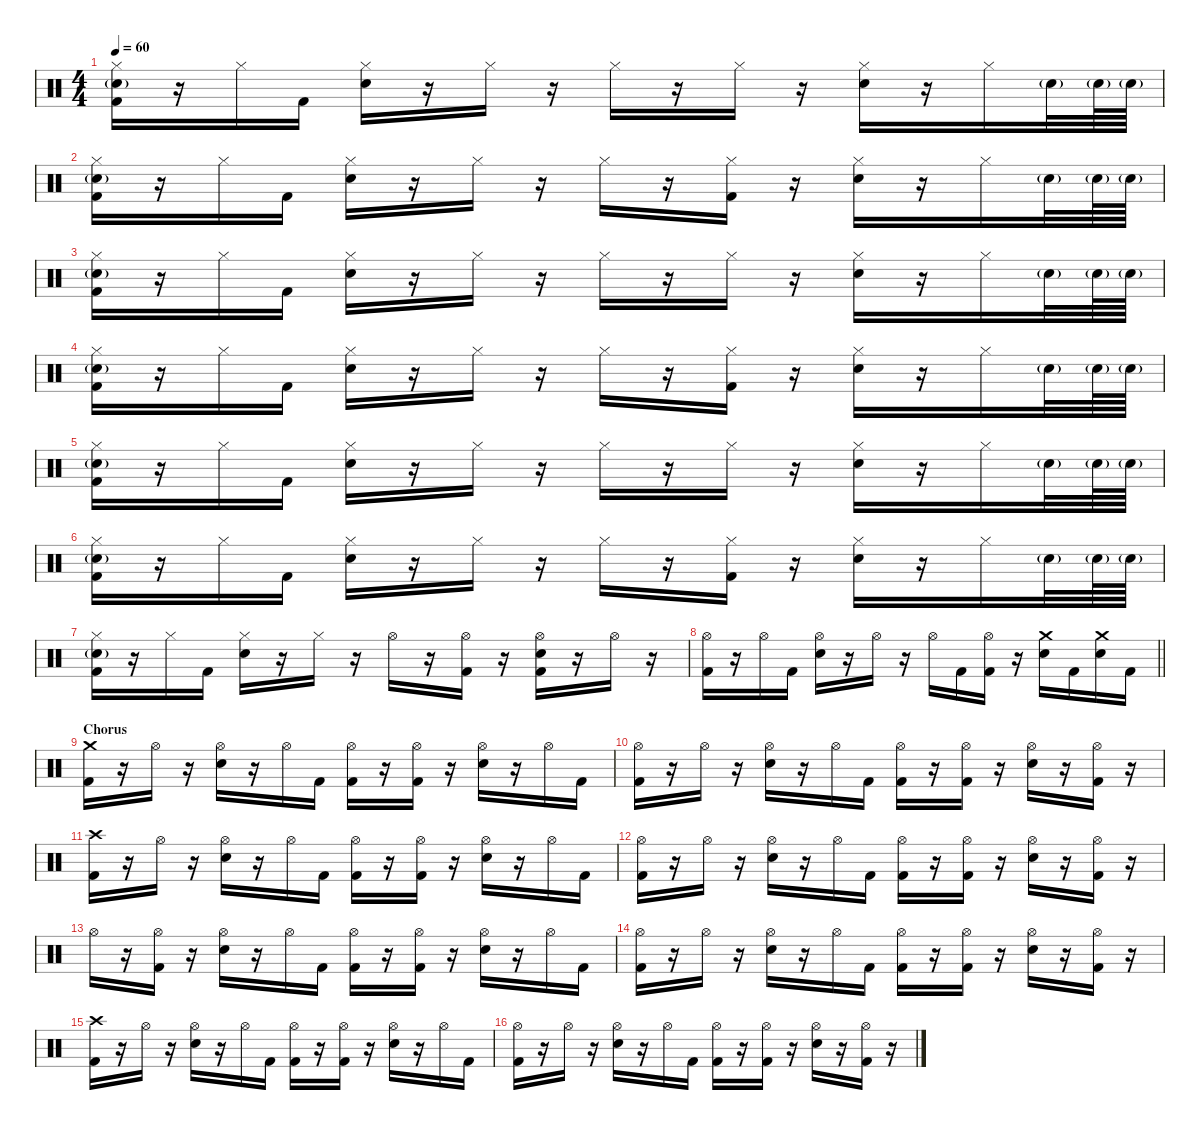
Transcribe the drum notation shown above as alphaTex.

\defaultSystemsLayout 4
\hideDynamics
\bracketExtendMode nobrackets
\singleTrackTrackNamePolicy hidden
\multiTrackTrackNamePolicy hidden
\firstSystemTrackNameMode fullname
\firstSystemTrackNameOrientation horizontal
\otherSystemsTrackNameOrientation horizontal
\track ("Gene Hoglan" "drm.") {instrument percussion}
\staff {score}
\articulation defaults
\ts (4 4)
\tempo 60
\clef neutral
\ks c
("Hi-Hat (closed)" "Snare (hit) 2"{g} "Kick (hit) 2").16{dy f beam Down} r.16{beam Down} "Hi-Hat (closed)".16{beam Down} "Kick (hit) 2".16{beam Down} ("Hi-Hat (closed)" "Snare (hit) 2").16{beam Down} r.16{beam Down} "Hi-Hat (closed)".16{beam Down} r.16{beam Down} "Hi-Hat (closed)".16{beam Down} r.16{beam Down} "Hi-Hat (closed)".16{beam Down} r.16{beam Down} ("Hi-Hat (closed)" "Snare (hit) 2").16{beam Down} r.16{beam Down} "Hi-Hat (closed)".16{beam Down} "Snare (hit) 2"{g}.32{beam Down} "Snare (hit) 2"{g}.64{beam Down} "Snare (hit) 2"{g}.64{beam Down} |
("Hi-Hat (closed)" "Snare (hit) 2"{g} "Kick (hit) 2").16{beam Down} r.16{beam Down} "Hi-Hat (closed)".16{beam Down} "Kick (hit) 2".16{beam Down} ("Hi-Hat (closed)" "Snare (hit) 2").16{beam Down} r.16{beam Down} "Hi-Hat (closed)".16{beam Down} r.16{beam Down} "Hi-Hat (closed)".16{beam Down} r.16{beam Down} ("Hi-Hat (closed)" "Kick (hit) 2").16{beam Down} r.16{beam Down} ("Hi-Hat (closed)" "Snare (hit) 2").16{beam Down} r.16{beam Down} "Hi-Hat (closed)".16{beam Down} "Snare (hit) 2"{g}.32{beam Down} "Snare (hit) 2"{g}.64{beam Down} "Snare (hit) 2"{g}.64{beam Down} |
("Hi-Hat (closed)" "Snare (hit) 2"{g} "Kick (hit) 2").16{beam Down} r.16{beam Down} "Hi-Hat (closed)".16{beam Down} "Kick (hit) 2".16{beam Down} ("Hi-Hat (closed)" "Snare (hit) 2").16{beam Down} r.16{beam Down} "Hi-Hat (closed)".16{beam Down} r.16{beam Down} "Hi-Hat (closed)".16{beam Down} r.16{beam Down} "Hi-Hat (closed)".16{beam Down} r.16{beam Down} ("Hi-Hat (closed)" "Snare (hit) 2").16{beam Down} r.16{beam Down} "Hi-Hat (closed)".16{beam Down} "Snare (hit) 2"{g}.32{beam Down} "Snare (hit) 2"{g}.64{beam Down} "Snare (hit) 2"{g}.64{beam Down} |
("Hi-Hat (closed)" "Snare (hit) 2"{g} "Kick (hit) 2").16{beam Down} r.16{beam Down} "Hi-Hat (closed)".16{beam Down} "Kick (hit) 2".16{beam Down} ("Hi-Hat (closed)" "Snare (hit) 2").16{beam Down} r.16{beam Down} "Hi-Hat (closed)".16{beam Down} r.16{beam Down} "Hi-Hat (closed)".16{beam Down} r.16{beam Down} ("Hi-Hat (closed)" "Kick (hit) 2").16{beam Down} r.16{beam Down} ("Hi-Hat (closed)" "Snare (hit) 2").16{beam Down} r.16{beam Down} "Hi-Hat (closed)".16{beam Down} "Snare (hit) 2"{g}.32{beam Down} "Snare (hit) 2"{g}.64{beam Down} "Snare (hit) 2"{g}.64{beam Down} |
("Hi-Hat (closed)" "Snare (hit) 2"{g} "Kick (hit) 2").16{beam Down} r.16{beam Down} "Hi-Hat (closed)".16{beam Down} "Kick (hit) 2".16{beam Down} ("Hi-Hat (closed)" "Snare (hit) 2").16{beam Down} r.16{beam Down} "Hi-Hat (closed)".16{beam Down} r.16{beam Down} "Hi-Hat (closed)".16{beam Down} r.16{beam Down} "Hi-Hat (closed)".16{beam Down} r.16{beam Down} ("Hi-Hat (closed)" "Snare (hit) 2").16{beam Down} r.16{beam Down} "Hi-Hat (closed)".16{beam Down} "Snare (hit) 2"{g}.32{beam Down} "Snare (hit) 2"{g}.64{beam Down} "Snare (hit) 2"{g}.64{beam Down} |
("Hi-Hat (closed)" "Snare (hit) 2"{g} "Kick (hit) 2").16{beam Down} r.16{beam Down} "Hi-Hat (closed)".16{beam Down} "Kick (hit) 2".16{beam Down} ("Hi-Hat (closed)" "Snare (hit) 2").16{beam Down} r.16{beam Down} "Hi-Hat (closed)".16{beam Down} r.16{beam Down} "Hi-Hat (closed)".16{beam Down} r.16{beam Down} ("Hi-Hat (closed)" "Kick (hit) 2").16{beam Down} r.16{beam Down} ("Hi-Hat (closed)" "Snare (hit) 2").16{beam Down} r.16{beam Down} "Hi-Hat (closed)".16{beam Down} "Snare (hit) 2"{g}.32{beam Down} "Snare (hit) 2"{g}.64{beam Down} "Snare (hit) 2"{g}.64{beam Down} |
("Hi-Hat (closed)" "Snare (hit) 2"{g} "Kick (hit) 2").16{beam Down} r.16{beam Down} "Hi-Hat (closed)".16{beam Down} "Kick (hit) 2".16{beam Down} ("Hi-Hat (closed)" "Snare (hit) 2").16{beam Down} r.16{beam Down} "Hi-Hat (closed)".16{beam Down} r.16{beam Down} "Hi-Hat (open)".16{beam Down} r.16{beam Down} ("Hi-Hat (open)" "Kick (hit) 2").16{beam Down} r.16{beam Down} ("Hi-Hat (open)" "Snare (hit) 2" "Kick (hit) 2").16{beam Down} r.16{beam Down} "Hi-Hat (open)".16{beam Down} r.16{beam Down} |
\barLineRight lightlight
("Hi-Hat (open)" "Kick (hit) 2").16{beam Down} r.16{beam Down} "Hi-Hat (open)".16{beam Down} "Kick (hit) 2".16{beam Down} ("Hi-Hat (open)" "Snare (hit) 2").16{beam Down} r.16{beam Down} "Hi-Hat (open)".16{beam Down} r.16{beam Down} "Hi-Hat (open)".16{beam Down} "Kick (hit) 2".16{beam Down} ("Hi-Hat (open)" "Kick (hit) 2").16{beam Down} r.16{beam Down} ("Crash medium (hit)" "Snare (hit) 2").16{beam Down} "Kick (hit) 2".16{beam Down} ("Crash medium (hit)" "Snare (hit) 2").16{beam Down} "Kick (hit) 2".16{beam Down} |
\section ("" "Chorus")
("Crash medium (hit)" "Kick (hit) 2").16{beam Down} r.16{beam Down} "Hi-Hat (open)".16{beam Down} r.16{beam Down} ("Hi-Hat (open)" "Snare (hit) 2").16{beam Down} r.16{beam Down} "Hi-Hat (open)".16{beam Down} "Kick (hit) 2".16{beam Down} ("Hi-Hat (open)" "Kick (hit) 2").16{beam Down} r.16{beam Down} ("Hi-Hat (open)" "Kick (hit) 2").16{beam Down} r.16{beam Down} ("Hi-Hat (open)" "Snare (hit) 2").16{beam Down} r.16{beam Down} "Hi-Hat (open)".16{beam Down} "Kick (hit) 2".16{beam Down} |
("Hi-Hat (open)" "Kick (hit) 2").16{beam Down} r.16{beam Down} "Hi-Hat (open)".16{beam Down} r.16{beam Down} ("Hi-Hat (open)" "Snare (hit) 2").16{beam Down} r.16{beam Down} "Hi-Hat (open)".16{beam Down} "Kick (hit) 2".16{beam Down} ("Hi-Hat (open)" "Kick (hit) 2").16{beam Down} r.16{beam Down} ("Hi-Hat (open)" "Kick (hit) 2").16{beam Down} r.16{beam Down} ("Hi-Hat (open)" "Snare (hit) 2").16{beam Down} r.16{beam Down} ("Hi-Hat (open)" "Kick (hit) 2").16{beam Down} r.16{beam Down} |
("Crash high (hit)" "Kick (hit) 2").16{beam Down} r.16{beam Down} "Hi-Hat (open)".16{beam Down} r.16{beam Down} ("Hi-Hat (open)" "Snare (hit) 2").16{beam Down} r.16{beam Down} "Hi-Hat (open)".16{beam Down} "Kick (hit) 2".16{beam Down} ("Hi-Hat (open)" "Kick (hit) 2").16{beam Down} r.16{beam Down} ("Hi-Hat (open)" "Kick (hit) 2").16{beam Down} r.16{beam Down} ("Hi-Hat (open)" "Snare (hit) 2").16{beam Down} r.16{beam Down} "Hi-Hat (open)".16{beam Down} "Kick (hit) 2".16{beam Down} |
("Hi-Hat (open)" "Kick (hit) 2").16{beam Down} r.16{beam Down} "Hi-Hat (open)".16{beam Down} r.16{beam Down} ("Hi-Hat (open)" "Snare (hit) 2").16{beam Down} r.16{beam Down} "Hi-Hat (open)".16{beam Down} "Kick (hit) 2".16{beam Down} ("Hi-Hat (open)" "Kick (hit) 2").16{beam Down} r.16{beam Down} ("Hi-Hat (open)" "Kick (hit) 2").16{beam Down} r.16{beam Down} ("Hi-Hat (open)" "Snare (hit) 2").16{beam Down} r.16{beam Down} ("Hi-Hat (open)" "Kick (hit) 2").16{beam Down} r.16{beam Down} |
"Hi-Hat (open)".16{beam Down} r.16{beam Down} ("Hi-Hat (open)" "Kick (hit) 2").16{beam Down} r.16{beam Down} ("Hi-Hat (open)" "Snare (hit) 2").16{beam Down} r.16{beam Down} "Hi-Hat (open)".16{beam Down} "Kick (hit) 2".16{beam Down} ("Hi-Hat (open)" "Kick (hit) 2").16{beam Down} r.16{beam Down} ("Hi-Hat (open)" "Kick (hit) 2").16{beam Down} r.16{beam Down} ("Hi-Hat (open)" "Snare (hit) 2").16{beam Down} r.16{beam Down} "Hi-Hat (open)".16{beam Down} "Kick (hit) 2".16{beam Down} |
("Hi-Hat (open)" "Kick (hit) 2").16{beam Down} r.16{beam Down} "Hi-Hat (open)".16{beam Down} r.16{beam Down} ("Hi-Hat (open)" "Snare (hit) 2").16{beam Down} r.16{beam Down} "Hi-Hat (open)".16{beam Down} "Kick (hit) 2".16{beam Down} ("Hi-Hat (open)" "Kick (hit) 2").16{beam Down} r.16{beam Down} ("Hi-Hat (open)" "Kick (hit) 2").16{beam Down} r.16{beam Down} ("Hi-Hat (open)" "Snare (hit) 2").16{beam Down} r.16{beam Down} ("Hi-Hat (open)" "Kick (hit) 2").16{beam Down} r.16{beam Down} |
("Crash high (hit)" "Kick (hit) 2").16{beam Down} r.16{beam Down} "Hi-Hat (open)".16{beam Down} r.16{beam Down} ("Hi-Hat (open)" "Snare (hit) 2").16{beam Down} r.16{beam Down} "Hi-Hat (open)".16{beam Down} "Kick (hit) 2".16{beam Down} ("Hi-Hat (open)" "Kick (hit) 2").16{beam Down} r.16{beam Down} ("Hi-Hat (open)" "Kick (hit) 2").16{beam Down} r.16{beam Down} ("Hi-Hat (open)" "Snare (hit) 2").16{beam Down} r.16{beam Down} "Hi-Hat (open)".16{beam Down} "Kick (hit) 2".16{beam Down} |
("Hi-Hat (open)" "Kick (hit) 2").16{beam Down} r.16{beam Down} "Hi-Hat (open)".16{beam Down} r.16{beam Down} ("Hi-Hat (open)" "Snare (hit) 2").16{beam Down} r.16{beam Down} "Hi-Hat (open)".16{beam Down} "Kick (hit) 2".16{beam Down} ("Hi-Hat (open)" "Kick (hit) 2").16{beam Down} r.16{beam Down} ("Hi-Hat (open)" "Kick (hit) 2").16{beam Down} r.16{beam Down} ("Hi-Hat (open)" "Snare (hit) 2").16{beam Down} r.16{beam Down} ("Hi-Hat (open)" "Kick (hit) 2").16{beam Down} r.16{beam Down}
